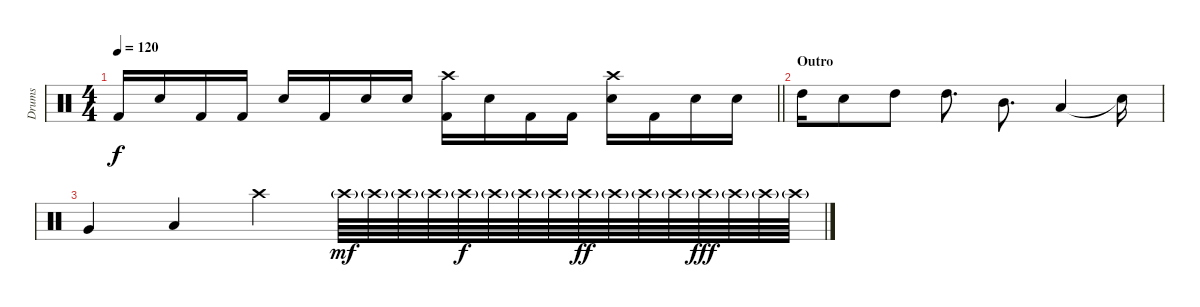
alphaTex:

\track ("Drums" "Drums") {instrument percussion}
\staff {score}
\articulation defaults
\ts (4 4)
\tempo 120
\clef neutral
\barLineRight lightlight
\ks c "Kick (hit) 2".16{dy f} "Snare (hit) 2".16 "Kick (hit) 2".16 "Kick (hit) 2".16 "Snare (hit) 2".16 "Kick (hit) 2".16 "Snare (hit) 2".16 "Snare (hit) 2".16
("Crash high (hit)" "Kick (hit) 2").16 "Snare (hit) 2".16 "Kick (hit) 2".16 "Kick (hit) 2".16 ("Crash high (hit)" "Snare (hit) 2").16 "Kick (hit) 2".16 "Snare (hit) 2".16 "Snare (hit) 2".16 |
\section ("" "Outro")
"High Tom (hit)".16 "Snare (hit) 2".8 "High Tom (hit)".8 "High Tom (hit)".8{d} "Mid Tom (hit)".8{d} "Low Tom (hit)".4 "Snare (hit)"{t}.16 |
"Very Low Tom (hit)".4 "Low Floor Tom (hit)".4 "Crash high (hit)".4 "Crash high (hit)"{g}.64{dy mf} "Crash high (hit)"{g}.64 "Crash high (hit)"{g}.64 "Crash high (hit)"{g}.64 "Crash high (hit)"{g}.64{dy f} "Crash high (hit)"{g}.64 "Crash high (hit)"{g}.64 "Crash high (hit)"{g}.64 "Crash high (hit)"{g}.64{dy ff} "Crash high (hit)"{g}.64 "Crash high (hit)"{g}.64 "Crash high (hit)"{g}.64 "Crash high (hit)"{g}.64{dy fff} "Crash high (hit)"{g}.64 "Crash high (hit)"{g}.64 "Crash high (hit)"{g}.64
